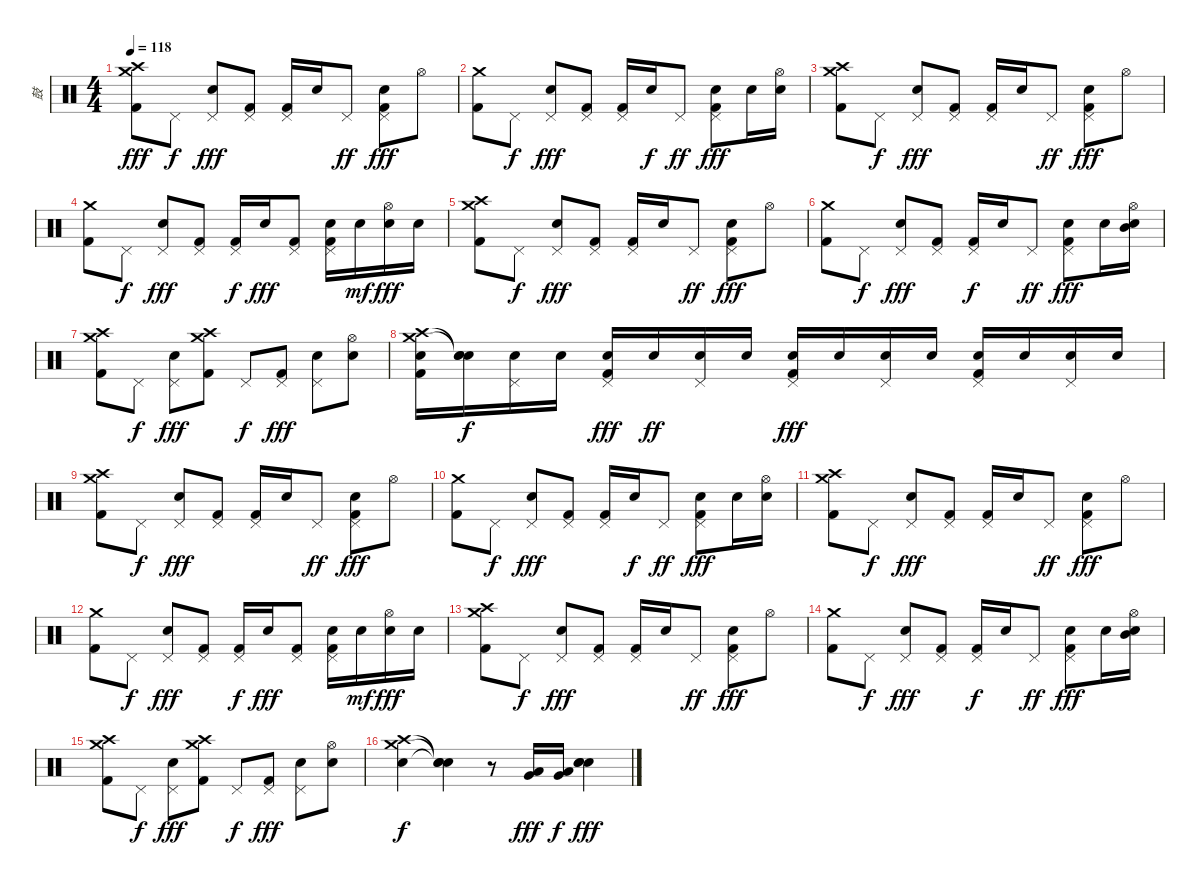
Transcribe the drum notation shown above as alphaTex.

\track ("鼓" "鼓") {instrument percussion}
\staff {score}
\articulation defaults
\ts (4 4)
\tempo 118
\clef neutral
\ks c
("Crash medium (hit)" "Crash high (hit)" "Kick (hit) 2").8{dy fff} "Pedal Hi-Hat (hit)".8{dy f} ("Pedal Hi-Hat (hit)" "Snare (hit) 2").8{dy fff} ("Pedal Hi-Hat (hit)" "Kick (hit) 2").8 ("Pedal Hi-Hat (hit)" "Kick (hit) 2").16 "Snare (hit) 2".16 "Pedal Hi-Hat (hit)".8{dy ff} ("Pedal Hi-Hat (hit)" "Snare (hit) 2" "Kick (hit) 2").8{dy fff} "Hi-Hat (open)".8 |
("Crash medium (hit)" "Kick (hit) 2").8 "Pedal Hi-Hat (hit)".8{dy f} ("Pedal Hi-Hat (hit)" "Snare (hit) 2").8{dy fff} ("Pedal Hi-Hat (hit)" "Kick (hit) 2").8 ("Pedal Hi-Hat (hit)" "Kick (hit) 2").16 "Snare (hit) 2".16{dy f} "Pedal Hi-Hat (hit)".8{dy ff} ("Pedal Hi-Hat (hit)" "Snare (hit) 2" "Kick (hit) 2").8{dy fff} "Snare (hit) 2".16 ("Hi-Hat (open)" "Snare (hit) 2").16 |
("Crash medium (hit)" "Crash high (hit)" "Kick (hit) 2").8 "Pedal Hi-Hat (hit)".8{dy f} ("Pedal Hi-Hat (hit)" "Snare (hit) 2").8{dy fff} ("Pedal Hi-Hat (hit)" "Kick (hit) 2").8 ("Pedal Hi-Hat (hit)" "Kick (hit) 2").16 "Snare (hit) 2".16 "Pedal Hi-Hat (hit)".8{dy ff} ("Pedal Hi-Hat (hit)" "Snare (hit) 2" "Kick (hit) 2").8{dy fff} "Hi-Hat (open)".8 |
("Crash medium (hit)" "Kick (hit) 2").8 "Pedal Hi-Hat (hit)".8{dy f} ("Pedal Hi-Hat (hit)" "Snare (hit) 2").8{dy fff} ("Pedal Hi-Hat (hit)" "Kick (hit) 2").8 ("Pedal Hi-Hat (hit)" "Kick (hit) 2").16{dy f} "Snare (hit) 2".16{dy fff} ("Pedal Hi-Hat (hit)" "Kick (hit) 2").8 ("Pedal Hi-Hat (hit)" "Snare (hit) 2" "Kick (hit) 2").16 "Snare (hit) 2".16{dy mf} ("Hi-Hat (open)" "Snare (hit) 2").16{dy fff} "Snare (hit) 2".16 |
("Crash medium (hit)" "Crash high (hit)" "Kick (hit) 2").8 "Pedal Hi-Hat (hit)".8{dy f} ("Pedal Hi-Hat (hit)" "Snare (hit) 2").8{dy fff} ("Pedal Hi-Hat (hit)" "Kick (hit) 2").8 ("Pedal Hi-Hat (hit)" "Kick (hit) 2").16 "Snare (hit) 2".16 "Pedal Hi-Hat (hit)".8{dy ff} ("Pedal Hi-Hat (hit)" "Snare (hit) 2" "Kick (hit) 2").8{dy fff} "Hi-Hat (open)".8 |
("Crash medium (hit)" "Kick (hit) 2").8 "Pedal Hi-Hat (hit)".8{dy f} ("Pedal Hi-Hat (hit)" "Snare (hit) 2").8{dy fff} ("Pedal Hi-Hat (hit)" "Kick (hit) 2").8 ("Pedal Hi-Hat (hit)" "Kick (hit) 2").16{dy f} "Snare (hit) 2".16 "Pedal Hi-Hat (hit)".8{dy ff} ("Pedal Hi-Hat (hit)" "Snare (hit) 2" "Kick (hit) 2").8{dy fff} "Snare (hit) 2".16 ("Hi-Hat (open)" "Electric Snare (hit)" "Mid Tom (hit)").16 |
("Crash medium (hit)" "Crash high (hit)" "Kick (hit) 2").8 "Pedal Hi-Hat (hit)".8{dy f} ("Pedal Hi-Hat (hit)" "Snare (hit) 2").8{dy fff} ("Crash medium (hit)" "Crash high (hit)" "Kick (hit) 2").8 "Pedal Hi-Hat (hit)".8{dy f} ("Pedal Hi-Hat (hit)" "Kick (hit) 2").8{dy fff} ("Pedal Hi-Hat (hit)" "Snare (hit) 2").8 ("Hi-Hat (open)" "Snare (hit) 2").8 |
("Crash high (hit)" "Crash medium (hit)" "Snare (hit) 2" "Kick (hit) 2").16 ("Snare (hit)"{t} "Snare (hit)"{t} "Snare (hit) 2").16{dy f} ("Pedal Hi-Hat (hit)" "Snare (hit) 2").16 "Snare (hit) 2".16 ("Pedal Hi-Hat (hit)" "Snare (hit) 2" "Kick (hit) 2").16{dy fff} "Snare (hit) 2".16{dy ff} ("Pedal Hi-Hat (hit)" "Snare (hit) 2").16 "Snare (hit) 2".16 ("Pedal Hi-Hat (hit)" "Snare (hit) 2" "Kick (hit) 2").16{dy fff} "Snare (hit) 2".16 ("Pedal Hi-Hat (hit)" "Snare (hit) 2").16 "Snare (hit) 2".16 ("Pedal Hi-Hat (hit)" "Snare (hit) 2" "Kick (hit) 2").16 "Snare (hit) 2".16 ("Pedal Hi-Hat (hit)" "Snare (hit) 2").16 "Snare (hit) 2".16 |
("Crash medium (hit)" "Crash high (hit)" "Kick (hit) 2").8 "Pedal Hi-Hat (hit)".8{dy f} ("Pedal Hi-Hat (hit)" "Snare (hit) 2").8{dy fff} ("Pedal Hi-Hat (hit)" "Kick (hit) 2").8 ("Pedal Hi-Hat (hit)" "Kick (hit) 2").16 "Snare (hit) 2".16 "Pedal Hi-Hat (hit)".8{dy ff} ("Pedal Hi-Hat (hit)" "Snare (hit) 2" "Kick (hit) 2").8{dy fff} "Hi-Hat (open)".8 |
("Crash medium (hit)" "Kick (hit) 2").8 "Pedal Hi-Hat (hit)".8{dy f} ("Pedal Hi-Hat (hit)" "Snare (hit) 2").8{dy fff} ("Pedal Hi-Hat (hit)" "Kick (hit) 2").8 ("Pedal Hi-Hat (hit)" "Kick (hit) 2").16 "Snare (hit) 2".16{dy f} "Pedal Hi-Hat (hit)".8{dy ff} ("Pedal Hi-Hat (hit)" "Snare (hit) 2" "Kick (hit) 2").8{dy fff} "Snare (hit) 2".16 ("Hi-Hat (open)" "Snare (hit) 2").16 |
("Crash medium (hit)" "Crash high (hit)" "Kick (hit) 2").8 "Pedal Hi-Hat (hit)".8{dy f} ("Pedal Hi-Hat (hit)" "Snare (hit) 2").8{dy fff} ("Pedal Hi-Hat (hit)" "Kick (hit) 2").8 ("Pedal Hi-Hat (hit)" "Kick (hit) 2").16 "Snare (hit) 2".16 "Pedal Hi-Hat (hit)".8{dy ff} ("Pedal Hi-Hat (hit)" "Snare (hit) 2" "Kick (hit) 2").8{dy fff} "Hi-Hat (open)".8 |
("Crash medium (hit)" "Kick (hit) 2").8 "Pedal Hi-Hat (hit)".8{dy f} ("Pedal Hi-Hat (hit)" "Snare (hit) 2").8{dy fff} ("Pedal Hi-Hat (hit)" "Kick (hit) 2").8 ("Pedal Hi-Hat (hit)" "Kick (hit) 2").16{dy f} "Snare (hit) 2".16{dy fff} ("Pedal Hi-Hat (hit)" "Kick (hit) 2").8 ("Pedal Hi-Hat (hit)" "Snare (hit) 2" "Kick (hit) 2").16 "Snare (hit) 2".16{dy mf} ("Hi-Hat (open)" "Snare (hit) 2").16{dy fff} "Snare (hit) 2".16 |
("Crash medium (hit)" "Crash high (hit)" "Kick (hit) 2").8 "Pedal Hi-Hat (hit)".8{dy f} ("Pedal Hi-Hat (hit)" "Snare (hit) 2").8{dy fff} ("Pedal Hi-Hat (hit)" "Kick (hit) 2").8 ("Pedal Hi-Hat (hit)" "Kick (hit) 2").16 "Snare (hit) 2".16 "Pedal Hi-Hat (hit)".8{dy ff} ("Pedal Hi-Hat (hit)" "Snare (hit) 2" "Kick (hit) 2").8{dy fff} "Hi-Hat (open)".8 |
("Crash medium (hit)" "Kick (hit) 2").8 "Pedal Hi-Hat (hit)".8{dy f} ("Pedal Hi-Hat (hit)" "Snare (hit) 2").8{dy fff} ("Pedal Hi-Hat (hit)" "Kick (hit) 2").8 ("Pedal Hi-Hat (hit)" "Kick (hit) 2").16{dy f} "Snare (hit) 2".16 "Pedal Hi-Hat (hit)".8{dy ff} ("Pedal Hi-Hat (hit)" "Snare (hit) 2" "Kick (hit) 2").8{dy fff} "Snare (hit) 2".16 ("Hi-Hat (open)" "Electric Snare (hit)" "Mid Tom (hit)").16 |
("Crash medium (hit)" "Crash high (hit)" "Kick (hit) 2").8 "Pedal Hi-Hat (hit)".8{dy f} ("Pedal Hi-Hat (hit)" "Snare (hit) 2").8{dy fff} ("Crash medium (hit)" "Crash high (hit)" "Kick (hit) 2").8 "Pedal Hi-Hat (hit)".8{dy f} ("Pedal Hi-Hat (hit)" "Kick (hit) 2").8{dy fff} ("Pedal Hi-Hat (hit)" "Snare (hit) 2").8 ("Hi-Hat (open)" "Snare (hit) 2").8 |
("Crash high (hit)" "Crash medium (hit)" "Snare (hit) 2").4{dy f} ("Snare (hit)"{t} "Snare (hit)"{t} "Snare (hit)"{t}).4 r.8 ("Very Low Tom (hit)" "Low Tom (hit)").16{dy fff} ("Very Low Tom (hit)" "Low Tom (hit)").16{dy f} ("Snare (hit) 2" "Snare (hit) 2" "Electric Snare (hit)").4{dy fff}
